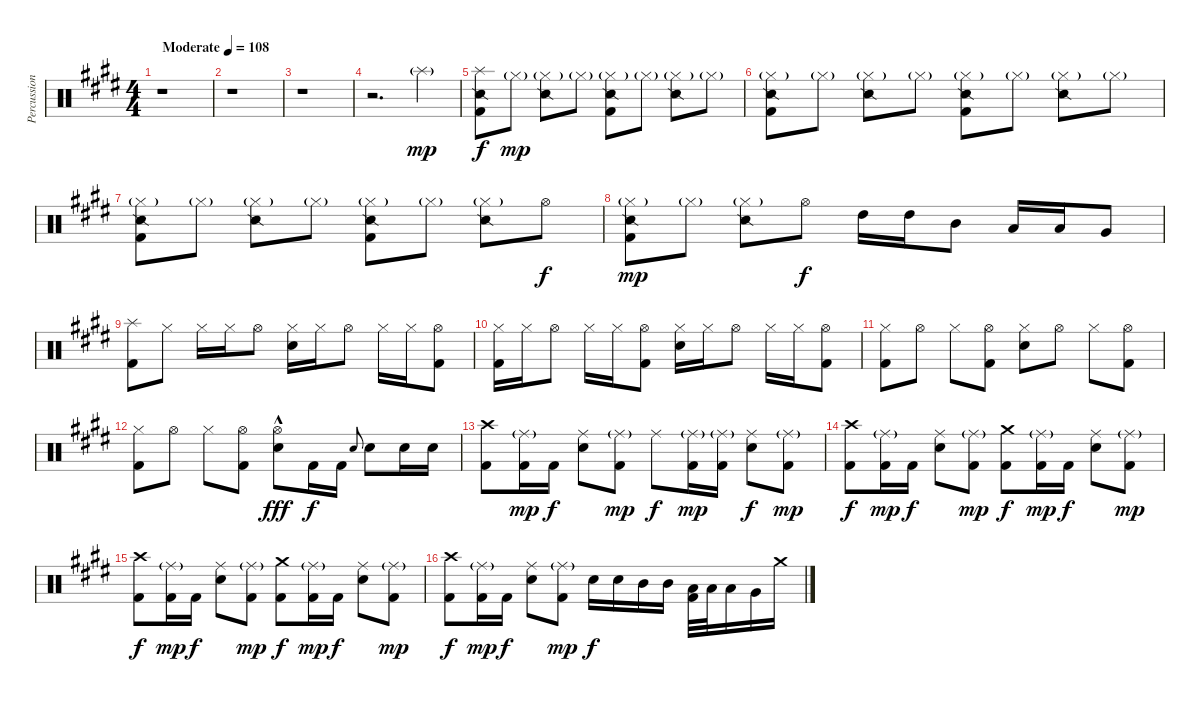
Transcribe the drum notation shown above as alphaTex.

\track ("Percussion" "Percussion") {instrument percussion}
\staff {score}
\articulation defaults
\ts (4 4)
\tempo (108 "Moderate")
\clef neutral
\ks e
r.1{dy mp} |
r.1 |
r.1 |
r.2{d} "Splash (hit)"{g}.4 |
("Splash (hit)" "Snare (side stick) 2" "Kick (hit) 2").8{dy f} "Hi-Hat (closed)"{g}.8{dy mp} ("Hi-Hat (closed)"{g} "Snare (side stick) 2").8 "Hi-Hat (closed)"{g}.8 ("Hi-Hat (closed)"{g} "Snare (side stick) 2" "Kick (hit) 2").8 "Hi-Hat (closed)"{g}.8 ("Hi-Hat (closed)"{g} "Snare (side stick) 2").8 "Hi-Hat (closed)"{g}.8 |
("Hi-Hat (closed)"{g} "Snare (side stick) 2" "Kick (hit) 2").8 "Hi-Hat (closed)"{g}.8 ("Hi-Hat (closed)"{g} "Snare (side stick) 2").8 "Hi-Hat (closed)"{g}.8 ("Hi-Hat (closed)"{g} "Snare (side stick) 2" "Kick (hit) 2").8 "Hi-Hat (closed)"{g}.8 ("Hi-Hat (closed)"{g} "Snare (side stick) 2").8 "Hi-Hat (closed)"{g}.8 |
("Hi-Hat (closed)"{g} "Snare (side stick) 2" "Kick (hit) 2").8 "Hi-Hat (closed)"{g}.8 ("Hi-Hat (closed)"{g} "Snare (side stick) 2").8 "Hi-Hat (closed)"{g}.8 ("Hi-Hat (closed)"{g} "Snare (side stick) 2" "Kick (hit) 2").8 "Hi-Hat (closed)"{g}.8 ("Hi-Hat (closed)"{g} "Snare (side stick) 2").8 "Hi-Hat (open)".8{dy f} |
("Hi-Hat (closed)"{g} "Snare (side stick) 2" "Kick (hit) 2").8{dy mp} "Hi-Hat (closed)"{g}.8 ("Hi-Hat (closed)"{g} "Snare (side stick) 2").8 "Hi-Hat (open)".8{dy f} "High Tom (hit)".16 "High Tom (hit)".16 "Mid Tom (hit)".8 "Low Tom (hit)".16 "Low Tom (hit)".16 "Very Low Tom (hit)".8 |
("Splash (hit)" "Kick (hit) 2").8 "Hi-Hat (closed)".8 "Hi-Hat (closed)".16 "Hi-Hat (closed)".16 "Hi-Hat (open)".8 ("Hi-Hat (closed)" "Electric Snare (hit)").16 "Hi-Hat (closed)".16 "Hi-Hat (open)".8 "Hi-Hat (closed)".16 "Hi-Hat (closed)".16 ("Hi-Hat (open)" "Kick (hit) 2").8 |
("Hi-Hat (closed)" "Kick (hit) 2").16 "Hi-Hat (closed)".16 "Hi-Hat (open)".8 "Hi-Hat (closed)".16 "Hi-Hat (closed)".16 ("Hi-Hat (open)" "Kick (hit) 2").8 ("Hi-Hat (closed)" "Electric Snare (hit)").16 "Hi-Hat (closed)".16 "Hi-Hat (open)".8 "Hi-Hat (closed)".16 "Hi-Hat (closed)".16 ("Hi-Hat (open)" "Kick (hit) 2").8 |
("Hi-Hat (closed)" "Kick (hit) 2").8 "Hi-Hat (open)".8 "Hi-Hat (closed)".8 ("Hi-Hat (open)" "Kick (hit) 2").8 ("Hi-Hat (closed)" "Electric Snare (hit)").8 "Hi-Hat (open)".8 "Hi-Hat (closed)".8 ("Hi-Hat (open)" "Kick (hit) 2").8 |
("Hi-Hat (closed)" "Kick (hit) 2").8 "Hi-Hat (open)".8 "Hi-Hat (closed)".8 ("Hi-Hat (open)" "Kick (hit) 2").8 ("Hi-Hat (open)"{hac} "Electric Snare (hit)").8{dy fff} "Kick (hit) 2".16{dy f} "Kick (hit) 2".16 "Electric Snare (hit)".8{gr onbeat} "Electric Snare (hit)".8 "Electric Snare (hit)".16 "Electric Snare (hit)".16 |
("Crash high (hit)" "Kick (hit) 2").8 ("Ride (middle)"{g} "Kick (hit) 2").16{dy mp} "Kick (hit) 2".16{dy f} ("Ride (middle)" "Electric Snare (hit)").8 ("Ride (middle)"{g} "Kick (hit) 2").8{dy mp} "Ride (middle)".8{dy f} ("Ride (middle)"{g} "Kick (hit) 2").16{dy mp} ("Ride (middle)"{g} "Kick (hit) 2").16 ("Ride (middle)" "Electric Snare (hit)").8{dy f} ("Ride (middle)"{g} "Kick (hit) 2").8{dy mp} |
("Crash high (hit)" "Kick (hit) 2").8{dy f} ("Ride (middle)"{g} "Kick (hit) 2").16{dy mp} "Kick (hit) 2".16{dy f} ("Ride (middle)" "Electric Snare (hit)").8 ("Ride (middle)"{g} "Kick (hit) 2").8{dy mp} ("Crash medium (hit)" "Kick (hit) 2").8{dy f} ("Ride (middle)"{g} "Kick (hit) 2").16{dy mp} "Kick (hit) 2".16{dy f} ("Ride (middle)" "Electric Snare (hit)").8 ("Ride (middle)"{g} "Kick (hit) 2").8{dy mp} |
("Crash high (hit)" "Kick (hit) 2").8{dy f} ("Ride (middle)"{g} "Kick (hit) 2").16{dy mp} "Kick (hit) 2".16{dy f} ("Ride (middle)" "Electric Snare (hit)").8 ("Ride (middle)"{g} "Kick (hit) 2").8{dy mp} ("Crash medium (hit)" "Kick (hit) 2").8{dy f} ("Ride (middle)"{g} "Kick (hit) 2").16{dy mp} "Kick (hit) 2".16{dy f} ("Ride (middle)" "Electric Snare (hit)").8 ("Ride (middle)"{g} "Kick (hit) 2").8{dy mp} |
("Crash high (hit)" "Kick (hit) 2").8{dy f} ("Ride (middle)"{g} "Kick (hit) 2").16{dy mp} "Kick (hit) 2".16{dy f} ("Ride (middle)" "Electric Snare (hit)").8 ("Ride (middle)"{g} "Kick (hit) 2").8{dy mp} "Electric Snare (hit)".16{dy f} "Electric Snare (hit)".16 "Mid Tom (hit)".16 "Mid Tom (hit)".16 ("Low Tom (hit)" "Kick (hit) 2").32 "Low Tom (hit)".32 "Low Tom (hit)".16 "Very Low Tom (hit)".16 "Crash medium (hit)".16
